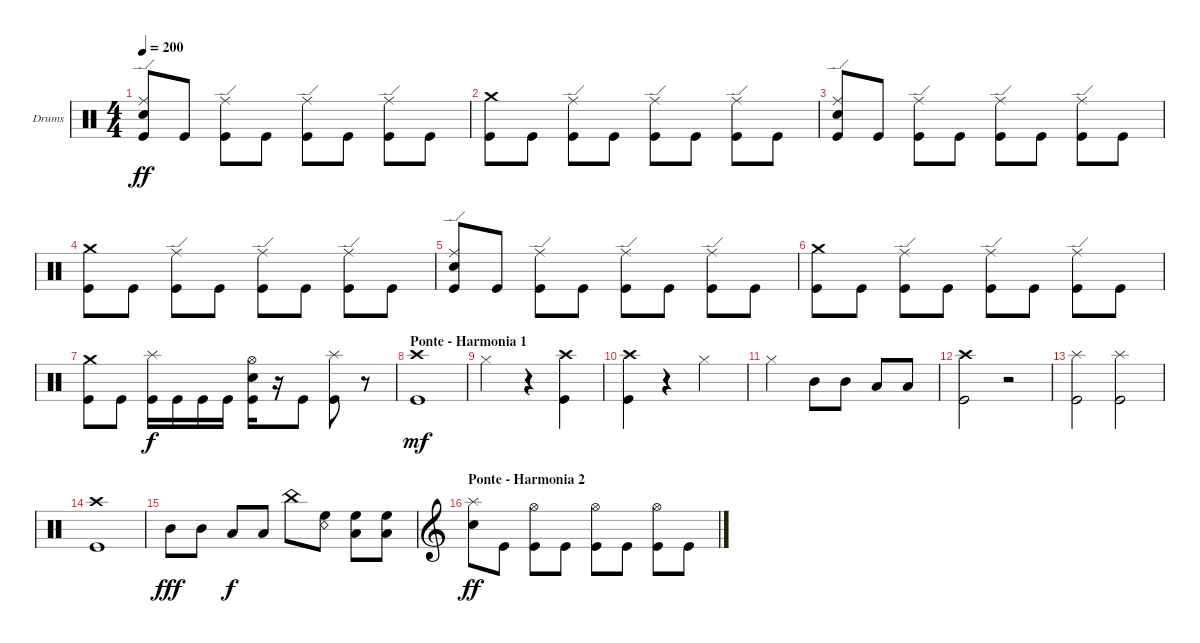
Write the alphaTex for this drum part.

\defaultSystemsLayout 4
\bracketExtendMode groupsimilarinstruments
\firstSystemTrackNameOrientation horizontal
\otherSystemsTrackNameOrientation horizontal
\track ("Drums" "Drums") {instrument percussion}
\staff {score}
\articulation defaults
\ts (4 4)
\tempo 200
\clef neutral
\ks c
("Kick (hit)" "Ride (edge)" "Snare (hit) 2").8{dy ff} "Kick (hit)".8 ("Ride (edge)" "Kick (hit)").8 "Kick (hit)".8 ("Ride (edge)" "Kick (hit)").8 "Kick (hit)".8 ("Ride (edge)" "Kick (hit)").8 "Kick (hit)".8 |
("Crash medium (hit)" "Kick (hit)").8 "Kick (hit)".8 ("Ride (edge)" "Kick (hit)").8 "Kick (hit)".8 ("Ride (edge)" "Kick (hit)").8 "Kick (hit)".8 ("Ride (edge)" "Kick (hit)").8 "Kick (hit)".8 |
("Kick (hit)" "Ride (edge)" "Snare (hit) 2").8 "Kick (hit)".8 ("Ride (edge)" "Kick (hit)").8 "Kick (hit)".8 ("Ride (edge)" "Kick (hit)").8 "Kick (hit)".8 ("Ride (edge)" "Kick (hit)").8 "Kick (hit)".8 |
("Crash medium (hit)" "Kick (hit)").8 "Kick (hit)".8 ("Ride (edge)" "Kick (hit)").8 "Kick (hit)".8 ("Ride (edge)" "Kick (hit)").8 "Kick (hit)".8 ("Ride (edge)" "Kick (hit)").8 "Kick (hit)".8 |
("Kick (hit)" "Ride (edge)" "Snare (hit) 2").8 "Kick (hit)".8 ("Ride (edge)" "Kick (hit)").8 "Kick (hit)".8 ("Ride (edge)" "Kick (hit)").8 "Kick (hit)".8 ("Ride (edge)" "Kick (hit)").8 "Kick (hit)".8 |
("Crash medium (hit)" "Kick (hit)").8 "Kick (hit)".8 ("Ride (edge)" "Kick (hit)").8 "Kick (hit)".8 ("Ride (edge)" "Kick (hit)").8 "Kick (hit)".8 ("Ride (edge)" "Kick (hit)").8 "Kick (hit)".8 |
("Crash medium (hit)" "Kick (hit)").8 "Kick (hit)".8 ("Splash (hit)" "Kick (hit)").16{dy f} "Kick (hit)".16 "Kick (hit)".16 "Kick (hit)".16 ("Hi-Hat (open)" "Snare (hit) 2" "Kick (hit)").16 r.16 "Kick (hit)".8 ("Splash (hit)" "Kick (hit)").8 r.8 |
\section ("" "Ponte - Harmonia 1")
("Kick (hit)" "Crash high (hit)").1{dy mf} |
"Hi-Hat (closed)".2 r.4 ("Kick (hit)" "Crash high (hit)").4 |
("Kick (hit)" "Crash high (hit)").4 r.4 "Hi-Hat (closed)".2 |
"Hi-Hat (closed)".2 "Mid Tom (hit)".8 "Mid Tom (hit)".8 "Low Tom (hit)".8 "Low Tom (hit)".8 |
("Kick (hit)" "Crash high (hit)").2 r.2 |
("Kick (hit)" "Splash (hit)").2 ("Kick (hit)" "Splash (hit)").2 |
("Kick (hit)" "Crash high (hit)").1 |
"Mid Tom (hit)".8{dy fff} "Mid Tom (hit)".8 "Low Tom (hit)".8{dy f} "Low Tom (hit)".8 "China (hit)".8 ("Snare (rim shot)" "High Floor Tom (hit)").8 ("High Floor Tom (hit)" "Low Tom (hit)").8 ("High Floor Tom (hit)" "Low Tom (hit)").8 |
\section ("" "Ponte - Harmonia 2")
\clef g2
("Snare (hit) 2" "Splash (hit)").8{dy ff} "Kick (hit)".8 ("Kick (hit)" "Hi-Hat (open)").8 "Kick (hit)".8 ("Kick (hit)" "Hi-Hat (open)").8 "Kick (hit)".8 ("Kick (hit)" "Hi-Hat (open)").8 "Kick (hit)".8
